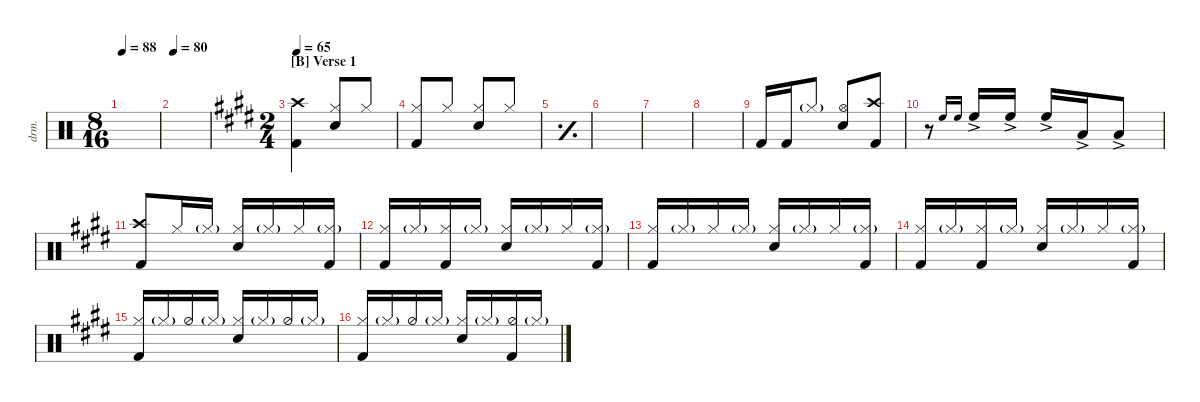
\defaultSystemsLayout 4
\hideDynamics
\bracketExtendMode groupsimilarinstruments
\otherSystemsTrackNameOrientation horizontal
\chordDiagramsInScore
\track ("Drumkit" "drm.") {instrument percussion}
\staff {score}
\articulation defaults
\ts (8 16)
\tempo 88
\clef neutral
\ks c
|
\tempo 80
|
\ts (2 4)
\beaming (8 2 2)
\section ("B" "Verse 1")
\tempo 65
\ks e
("Crash high (hit)"{acc forcenatural} "Kick (hit) 2"{acc forcenatural}).4 ("Snare (hit) 2"{acc forcenatural} "Hi-Hat (closed)"{acc forcenatural}).8{beam Up} "Hi-Hat (closed)"{acc forcenatural}.8{beam Up} |
("Kick (hit) 2"{acc forcenatural} "Hi-Hat (closed)"{acc forcenatural}).8{beam Up} "Hi-Hat (closed)"{acc forcenatural}.8{beam Up} ("Hi-Hat (closed)"{acc forcenatural} "Snare (hit) 2"{acc forcenatural}).8{beam Up} "Hi-Hat (closed)"{acc forcenatural}.8{beam Up} |
\simile simple
|
|
|
|
\simile none "Kick (hit) 2"{acc forcenatural}.16{beam Up} "Kick (hit) 2"{acc forcenatural}.16{beam Up} "Hi-Hat (closed)"{g acc forcenatural}.8{beam Up}
("Hi-Hat (open)"{acc forcenatural} "Snare (hit) 2"{acc forcenatural}).8{beam Up} ("Crash high (hit)"{acc forcenatural} "Kick (hit) 2"{acc forcenatural}).8{beam Up} |
r.8 "High Floor Tom (hit)"{acc forcenatural}.16{gr onbeat} "High Floor Tom (hit)"{acc forcenatural}.16{gr onbeat} "High Floor Tom (hit)"{ac acc forcenatural}.16{beam Up} "High Floor Tom (hit)"{ac acc forcenatural}.16{beam Up} "High Floor Tom (hit)"{ac acc forcenatural}.16{beam Up} "Low Tom (hit)"{ac acc forcenatural}.16{beam Up} "Low Tom (hit)"{ac acc forcenatural}.8{beam Up} |
("Crash high (hit)"{acc forcenatural} "Kick (hit) 2"{acc forcenatural}).8{beam Up} "Hi-Hat (closed)"{acc forcenatural}.16{beam Up} "Hi-Hat (closed)"{g acc forcenatural}.16{beam Up} ("Hi-Hat (closed)"{acc forcenatural} "Snare (hit) 2"{acc forcenatural}).16{beam Up} "Hi-Hat (closed)"{g acc forcenatural}.16{beam Up} "Hi-Hat (closed)"{acc forcenatural}.16{beam Up} ("Hi-Hat (closed)"{g acc forcenatural} "Kick (hit) 2"{acc forcenatural}).16{beam Up} |
("Kick (hit) 2"{acc forcenatural} "Hi-Hat (closed)"{acc forcenatural}).16{beam Up} "Hi-Hat (closed)"{g acc forcenatural}.16{beam Up} ("Hi-Hat (closed)"{acc forcenatural} "Kick (hit) 2"{acc forcenatural}).16{beam Up} "Hi-Hat (closed)"{g acc forcenatural}.16{beam Up} ("Hi-Hat (closed)"{acc forcenatural} "Snare (hit) 2"{acc forcenatural}).16{beam Up} "Hi-Hat (closed)"{g acc forcenatural}.16{beam Up} "Hi-Hat (closed)"{acc forcenatural}.16{beam Up} ("Hi-Hat (closed)"{g acc forcenatural} "Kick (hit) 2"{acc forcenatural}).16{beam Up} |
("Kick (hit) 2"{acc forcenatural} "Hi-Hat (closed)"{acc forcenatural}).16{beam Up} "Hi-Hat (closed)"{g acc forcenatural}.16{beam Up} "Hi-Hat (closed)"{acc forcenatural}.16{beam Up} "Hi-Hat (closed)"{g acc forcenatural}.16{beam Up} ("Hi-Hat (closed)"{acc forcenatural} "Snare (hit) 2"{acc forcenatural}).16{beam Up} "Hi-Hat (closed)"{g acc forcenatural}.16{beam Up} "Hi-Hat (closed)"{acc forcenatural}.16{beam Up} ("Hi-Hat (closed)"{g acc forcenatural} "Kick (hit) 2"{acc forcenatural}).16{beam Up} |
("Kick (hit) 2"{acc forcenatural} "Hi-Hat (closed)"{acc forcenatural}).16{beam Up} "Hi-Hat (closed)"{g acc forcenatural}.16{beam Up} ("Hi-Hat (closed)"{acc forcenatural} "Kick (hit) 2"{acc forcenatural}).16{beam Up} "Hi-Hat (closed)"{g acc forcenatural}.16{beam Up} ("Hi-Hat (closed)"{acc forcenatural} "Snare (hit) 2"{acc forcenatural}).16{beam Up} "Hi-Hat (closed)"{g acc forcenatural}.16{beam Up} "Hi-Hat (closed)"{acc forcenatural}.16{beam Up} ("Hi-Hat (closed)"{g acc forcenatural} "Kick (hit) 2"{acc forcenatural}).16{beam Up} |
("Hi-Hat (closed)"{acc forcenatural} "Kick (hit) 2"{acc forcenatural}).16{beam Up} "Hi-Hat (closed)"{g acc forcenatural}.16{beam Up} "Hi-Hat (half)"{acc forcenatural}.16{beam Up} "Hi-Hat (closed)"{g acc forcenatural}.16{beam Up} ("Hi-Hat (closed)"{acc forcenatural} "Snare (hit) 2"{acc forcenatural}).16{beam Up} "Hi-Hat (closed)"{g acc forcenatural}.16{beam Up} "Hi-Hat (half)"{acc forcenatural}.16{beam Up} "Hi-Hat (closed)"{g acc forcenatural}.16{beam Up} |
("Hi-Hat (closed)"{acc forcenatural} "Kick (hit) 2"{acc forcenatural}).16{beam Up} "Hi-Hat (closed)"{g acc forcenatural}.16{beam Up} "Hi-Hat (half)"{acc forcenatural}.16{beam Up} "Hi-Hat (closed)"{g acc forcenatural}.16{beam Up} ("Hi-Hat (closed)"{acc forcenatural} "Snare (hit) 2"{acc forcenatural}).16{beam Up} "Hi-Hat (closed)"{g acc forcenatural}.16{beam Up} ("Hi-Hat (half)"{acc forcenatural} "Kick (hit) 2"{acc forcenatural}).16{beam Up} "Hi-Hat (closed)"{g acc forcenatural}.16{beam Up}
